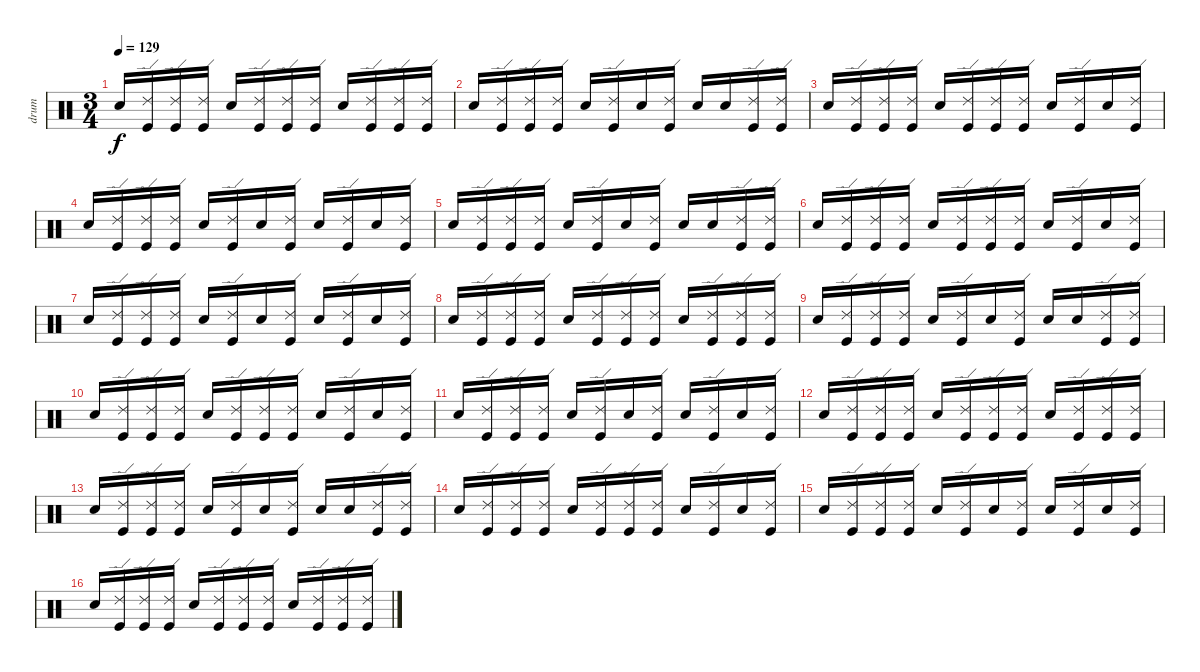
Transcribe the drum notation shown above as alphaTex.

\track ("drum" "drum") {instrument percussion}
\staff {score}
\articulation defaults
\ts (3 4)
\tempo 129
\clef neutral
\ks c "Electric Snare (hit)".16{dy f}
("Kick (hit)" "Ride (edge) 2").16 ("Kick (hit)" "Ride (edge) 2").16 ("Kick (hit)" "Ride (edge) 2").16 "Electric Snare (hit)".16 ("Kick (hit)" "Ride (edge) 2").16 ("Kick (hit)" "Ride (edge) 2").16 ("Kick (hit)" "Ride (edge) 2").16 "Electric Snare (hit)".16 ("Kick (hit)" "Ride (edge) 2").16 ("Kick (hit)" "Ride (edge) 2").16 ("Kick (hit)" "Ride (edge) 2").16 |
"Electric Snare (hit)".16 ("Kick (hit)" "Ride (edge) 2").16 ("Kick (hit)" "Ride (edge) 2").16 ("Kick (hit)" "Ride (edge) 2").16 "Electric Snare (hit)".16 ("Kick (hit)" "Ride (edge) 2").16 "Electric Snare (hit)".16 ("Kick (hit)" "Ride (edge) 2").16 "Electric Snare (hit)".16 "Electric Snare (hit)".16 ("Kick (hit)" "Ride (edge) 2").16 ("Kick (hit)" "Ride (edge) 2").16 |
"Electric Snare (hit)".16 ("Kick (hit)" "Ride (edge) 2").16 ("Kick (hit)" "Ride (edge) 2").16 ("Kick (hit)" "Ride (edge) 2").16 "Electric Snare (hit)".16 ("Kick (hit)" "Ride (edge) 2").16 ("Kick (hit)" "Ride (edge) 2").16 ("Kick (hit)" "Ride (edge) 2").16 "Electric Snare (hit)".16 ("Kick (hit)" "Ride (edge) 2").16 "Electric Snare (hit)".16 ("Kick (hit)" "Ride (edge) 2").16 |
"Electric Snare (hit)".16 ("Kick (hit)" "Ride (edge) 2").16 ("Kick (hit)" "Ride (edge) 2").16 ("Kick (hit)" "Ride (edge) 2").16 "Electric Snare (hit)".16 ("Kick (hit)" "Ride (edge) 2").16 "Electric Snare (hit)".16 ("Kick (hit)" "Ride (edge) 2").16 "Electric Snare (hit)".16 ("Kick (hit)" "Ride (edge) 2").16 "Electric Snare (hit)".16 ("Kick (hit)" "Ride (edge) 2").16 |
"Electric Snare (hit)".16 ("Kick (hit)" "Ride (edge) 2").16 ("Kick (hit)" "Ride (edge) 2").16 ("Kick (hit)" "Ride (edge) 2").16 "Electric Snare (hit)".16 ("Kick (hit)" "Ride (edge) 2").16 "Electric Snare (hit)".16 ("Kick (hit)" "Ride (edge) 2").16 "Electric Snare (hit)".16 "Electric Snare (hit)".16 ("Kick (hit)" "Ride (edge) 2").16 ("Kick (hit)" "Ride (edge) 2").16 |
"Electric Snare (hit)".16 ("Kick (hit)" "Ride (edge) 2").16 ("Kick (hit)" "Ride (edge) 2").16 ("Kick (hit)" "Ride (edge) 2").16 "Electric Snare (hit)".16 ("Kick (hit)" "Ride (edge) 2").16 ("Kick (hit)" "Ride (edge) 2").16 ("Kick (hit)" "Ride (edge) 2").16 "Electric Snare (hit)".16 ("Kick (hit)" "Ride (edge) 2").16 "Electric Snare (hit)".16 ("Kick (hit)" "Ride (edge) 2").16 |
"Electric Snare (hit)".16 ("Kick (hit)" "Ride (edge) 2").16 ("Kick (hit)" "Ride (edge) 2").16 ("Kick (hit)" "Ride (edge) 2").16 "Electric Snare (hit)".16 ("Kick (hit)" "Ride (edge) 2").16 "Electric Snare (hit)".16 ("Kick (hit)" "Ride (edge) 2").16 "Electric Snare (hit)".16 ("Kick (hit)" "Ride (edge) 2").16 "Electric Snare (hit)".16 ("Kick (hit)" "Ride (edge) 2").16 |
"Electric Snare (hit)".16 ("Kick (hit)" "Ride (edge) 2").16 ("Kick (hit)" "Ride (edge) 2").16 ("Kick (hit)" "Ride (edge) 2").16 "Electric Snare (hit)".16 ("Kick (hit)" "Ride (edge) 2").16 ("Kick (hit)" "Ride (edge) 2").16 ("Kick (hit)" "Ride (edge) 2").16 "Electric Snare (hit)".16 ("Kick (hit)" "Ride (edge) 2").16 ("Kick (hit)" "Ride (edge) 2").16 ("Kick (hit)" "Ride (edge) 2").16 |
"Electric Snare (hit)".16 ("Kick (hit)" "Ride (edge) 2").16 ("Kick (hit)" "Ride (edge) 2").16 ("Kick (hit)" "Ride (edge) 2").16 "Electric Snare (hit)".16 ("Kick (hit)" "Ride (edge) 2").16 "Electric Snare (hit)".16 ("Kick (hit)" "Ride (edge) 2").16 "Electric Snare (hit)".16 "Electric Snare (hit)".16 ("Kick (hit)" "Ride (edge) 2").16 ("Kick (hit)" "Ride (edge) 2").16 |
"Electric Snare (hit)".16 ("Kick (hit)" "Ride (edge) 2").16 ("Kick (hit)" "Ride (edge) 2").16 ("Kick (hit)" "Ride (edge) 2").16 "Electric Snare (hit)".16 ("Kick (hit)" "Ride (edge) 2").16 ("Kick (hit)" "Ride (edge) 2").16 ("Kick (hit)" "Ride (edge) 2").16 "Electric Snare (hit)".16 ("Kick (hit)" "Ride (edge) 2").16 "Electric Snare (hit)".16 ("Kick (hit)" "Ride (edge) 2").16 |
"Electric Snare (hit)".16 ("Kick (hit)" "Ride (edge) 2").16 ("Kick (hit)" "Ride (edge) 2").16 ("Kick (hit)" "Ride (edge) 2").16 "Electric Snare (hit)".16 ("Kick (hit)" "Ride (edge) 2").16 "Electric Snare (hit)".16 ("Kick (hit)" "Ride (edge) 2").16 "Electric Snare (hit)".16 ("Kick (hit)" "Ride (edge) 2").16 "Electric Snare (hit)".16 ("Kick (hit)" "Ride (edge) 2").16 |
"Electric Snare (hit)".16 ("Kick (hit)" "Ride (edge) 2").16 ("Kick (hit)" "Ride (edge) 2").16 ("Kick (hit)" "Ride (edge) 2").16 "Electric Snare (hit)".16 ("Kick (hit)" "Ride (edge) 2").16 ("Kick (hit)" "Ride (edge) 2").16 ("Kick (hit)" "Ride (edge) 2").16 "Electric Snare (hit)".16 ("Kick (hit)" "Ride (edge) 2").16 ("Kick (hit)" "Ride (edge) 2").16 ("Kick (hit)" "Ride (edge) 2").16 |
"Electric Snare (hit)".16 ("Kick (hit)" "Ride (edge) 2").16 ("Kick (hit)" "Ride (edge) 2").16 ("Kick (hit)" "Ride (edge) 2").16 "Electric Snare (hit)".16 ("Kick (hit)" "Ride (edge) 2").16 "Electric Snare (hit)".16 ("Kick (hit)" "Ride (edge) 2").16 "Electric Snare (hit)".16 "Electric Snare (hit)".16 ("Kick (hit)" "Ride (edge) 2").16 ("Kick (hit)" "Ride (edge) 2").16 |
"Electric Snare (hit)".16 ("Kick (hit)" "Ride (edge) 2").16 ("Kick (hit)" "Ride (edge) 2").16 ("Kick (hit)" "Ride (edge) 2").16 "Electric Snare (hit)".16 ("Kick (hit)" "Ride (edge) 2").16 ("Kick (hit)" "Ride (edge) 2").16 ("Kick (hit)" "Ride (edge) 2").16 "Electric Snare (hit)".16 ("Kick (hit)" "Ride (edge) 2").16 "Electric Snare (hit)".16 ("Kick (hit)" "Ride (edge) 2").16 |
"Electric Snare (hit)".16 ("Kick (hit)" "Ride (edge) 2").16 ("Kick (hit)" "Ride (edge) 2").16 ("Kick (hit)" "Ride (edge) 2").16 "Electric Snare (hit)".16 ("Kick (hit)" "Ride (edge) 2").16 "Electric Snare (hit)".16 ("Kick (hit)" "Ride (edge) 2").16 "Electric Snare (hit)".16 ("Kick (hit)" "Ride (edge) 2").16 "Electric Snare (hit)".16 ("Kick (hit)" "Ride (edge) 2").16 |
"Electric Snare (hit)".16 ("Kick (hit)" "Ride (edge) 2").16 ("Kick (hit)" "Ride (edge) 2").16 ("Kick (hit)" "Ride (edge) 2").16 "Electric Snare (hit)".16 ("Kick (hit)" "Ride (edge) 2").16 ("Kick (hit)" "Ride (edge) 2").16 ("Kick (hit)" "Ride (edge) 2").16 "Electric Snare (hit)".16 ("Kick (hit)" "Ride (edge) 2").16 ("Kick (hit)" "Ride (edge) 2").16 ("Kick (hit)" "Ride (edge) 2").16
